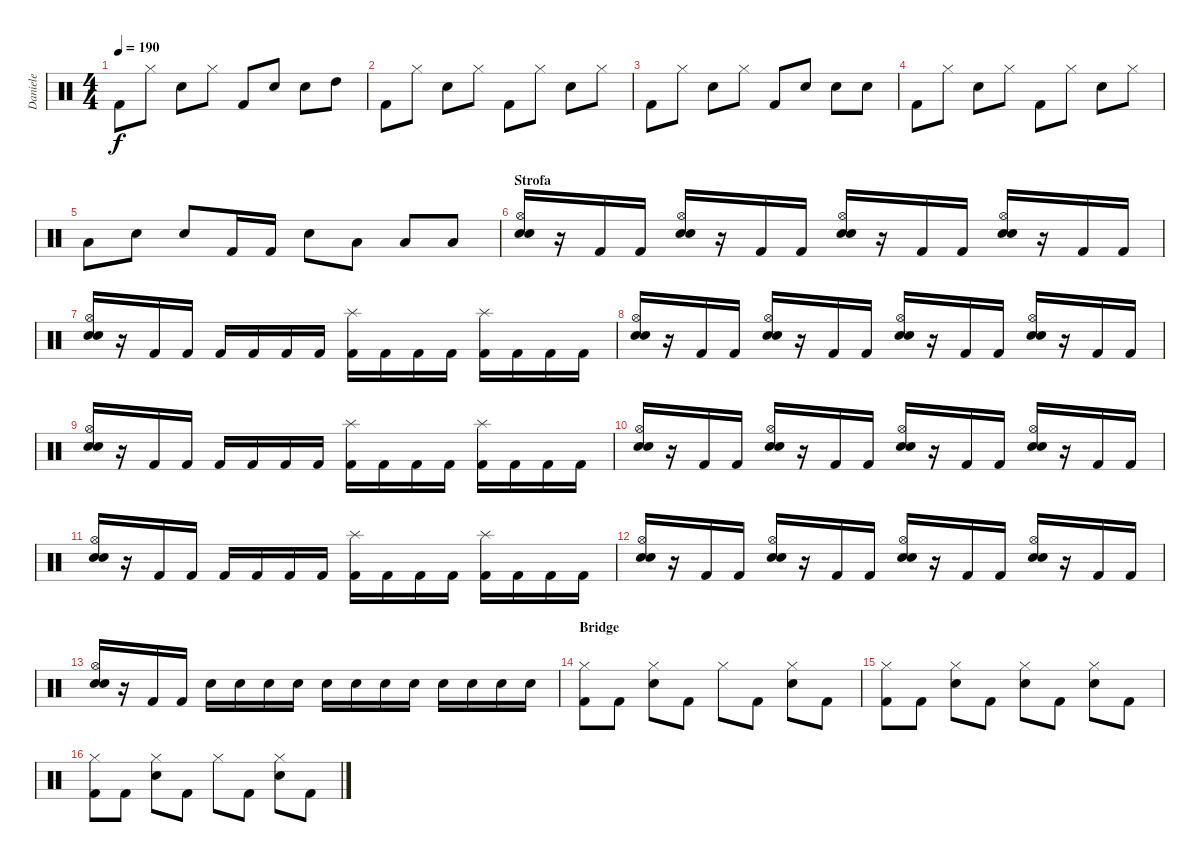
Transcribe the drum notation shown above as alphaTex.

\track ("Daniele" "Daniele") {instrument percussion}
\staff {score}
\articulation defaults
\ts (4 4)
\tempo 190
\clef neutral
\ks c "Kick (hit) 2".8{dy f} "Hi-Hat (closed)".8 "Electric Snare (hit)".8 "Hi-Hat (closed)".8 "Kick (hit) 2".8 "Electric Snare (hit)".8 "Electric Snare (hit)".8 "High Tom (hit)".8
|
"Kick (hit) 2".8 "Hi-Hat (closed)".8 "Electric Snare (hit)".8 "Hi-Hat (closed)".8 "Kick (hit) 2".8 "Hi-Hat (closed)".8 "Electric Snare (hit)".8 "Hi-Hat (closed)".8 |
"Kick (hit) 2".8 "Hi-Hat (closed)".8 "Electric Snare (hit)".8 "Hi-Hat (closed)".8 "Kick (hit) 2".8 "Electric Snare (hit)".8 "Electric Snare (hit)".8 "Electric Snare (hit)".8 |
"Kick (hit) 2".8 "Hi-Hat (closed)".8 "Electric Snare (hit)".8 "Hi-Hat (closed)".8 "Kick (hit) 2".8 "Hi-Hat (closed)".8 "Electric Snare (hit)".8 "Hi-Hat (closed)".8 |
"Low Tom (hit)".8 "Electric Snare (hit)".8 "Electric Snare (hit)".8 "Kick (hit) 2".16 "Kick (hit) 2".16 "Electric Snare (hit)".8 "Low Tom (hit)".8 "Low Tom (hit)".8 "Low Floor Tom (hit)".8 |
\section ("" "Strofa")
("Hi-Hat (open)" "Electric Snare (hit)" "Snare (hit) 2").16 r.16 "Kick (hit) 2".16 "Kick (hit) 2".16 ("Hi-Hat (open)" "Electric Snare (hit)" "Snare (hit) 2").16 r.16 "Kick (hit) 2".16 "Kick (hit) 2".16 ("Hi-Hat (open)" "Electric Snare (hit)" "Snare (hit) 2").16 r.16 "Kick (hit) 2".16 "Kick (hit) 2".16 ("Hi-Hat (open)" "Electric Snare (hit)" "Snare (hit) 2").16 r.16 "Kick (hit) 2".16 "Kick (hit) 2".16 |
("Hi-Hat (open)" "Electric Snare (hit)" "Snare (hit) 2").16 r.16 "Kick (hit) 2".16 "Kick (hit) 2".16 "Kick (hit) 2".16 "Kick (hit) 2".16 "Kick (hit) 2".16 "Kick (hit) 2".16 ("Splash (hit)" "Kick (hit) 2").16 "Kick (hit) 2".16 "Kick (hit) 2".16 "Kick (hit) 2".16 ("Splash (hit)" "Kick (hit) 2").16 "Kick (hit) 2".16 "Kick (hit) 2".16 "Kick (hit) 2".16 |
("Hi-Hat (open)" "Electric Snare (hit)" "Snare (hit) 2").16 r.16 "Kick (hit) 2".16 "Kick (hit) 2".16 ("Hi-Hat (open)" "Electric Snare (hit)" "Snare (hit) 2").16 r.16 "Kick (hit) 2".16 "Kick (hit) 2".16 ("Hi-Hat (open)" "Electric Snare (hit)" "Snare (hit) 2").16 r.16 "Kick (hit) 2".16 "Kick (hit) 2".16 ("Hi-Hat (open)" "Electric Snare (hit)" "Snare (hit) 2").16 r.16 "Kick (hit) 2".16 "Kick (hit) 2".16 |
("Hi-Hat (open)" "Electric Snare (hit)" "Snare (hit) 2").16 r.16 "Kick (hit) 2".16 "Kick (hit) 2".16 "Kick (hit) 2".16 "Kick (hit) 2".16 "Kick (hit) 2".16 "Kick (hit) 2".16 ("Splash (hit)" "Kick (hit) 2").16 "Kick (hit) 2".16 "Kick (hit) 2".16 "Kick (hit) 2".16 ("Splash (hit)" "Kick (hit) 2").16 "Kick (hit) 2".16 "Kick (hit) 2".16 "Kick (hit) 2".16 |
("Hi-Hat (open)" "Electric Snare (hit)" "Snare (hit) 2").16 r.16 "Kick (hit) 2".16 "Kick (hit) 2".16 ("Hi-Hat (open)" "Electric Snare (hit)" "Snare (hit) 2").16 r.16 "Kick (hit) 2".16 "Kick (hit) 2".16 ("Hi-Hat (open)" "Electric Snare (hit)" "Snare (hit) 2").16 r.16 "Kick (hit) 2".16 "Kick (hit) 2".16 ("Hi-Hat (open)" "Electric Snare (hit)" "Snare (hit) 2").16 r.16 "Kick (hit) 2".16 "Kick (hit) 2".16 |
("Hi-Hat (open)" "Electric Snare (hit)" "Snare (hit) 2").16 r.16 "Kick (hit) 2".16 "Kick (hit) 2".16 "Kick (hit) 2".16 "Kick (hit) 2".16 "Kick (hit) 2".16 "Kick (hit) 2".16 ("Splash (hit)" "Kick (hit) 2").16 "Kick (hit) 2".16 "Kick (hit) 2".16 "Kick (hit) 2".16 ("Splash (hit)" "Kick (hit) 2").16 "Kick (hit) 2".16 "Kick (hit) 2".16 "Kick (hit) 2".16 |
("Hi-Hat (open)" "Electric Snare (hit)" "Snare (hit) 2").16 r.16 "Kick (hit) 2".16 "Kick (hit) 2".16 ("Hi-Hat (open)" "Electric Snare (hit)" "Snare (hit) 2").16 r.16 "Kick (hit) 2".16 "Kick (hit) 2".16 ("Hi-Hat (open)" "Electric Snare (hit)" "Snare (hit) 2").16 r.16 "Kick (hit) 2".16 "Kick (hit) 2".16 ("Hi-Hat (open)" "Electric Snare (hit)" "Snare (hit) 2").16 r.16 "Kick (hit) 2".16 "Kick (hit) 2".16 |
("Hi-Hat (open)" "Electric Snare (hit)" "Snare (hit) 2").16 r.16 "Kick (hit) 2".16 "Kick (hit) 2".16 "Electric Snare (hit)".16 "Electric Snare (hit)".16 "Electric Snare (hit)".16 "Electric Snare (hit)".16 "Electric Snare (hit)".16 "Electric Snare (hit)".16 "Electric Snare (hit)".16 "Electric Snare (hit)".16 "Electric Snare (hit)".16 "Electric Snare (hit)".16 "Electric Snare (hit)".16 "Electric Snare (hit)".16 |
\section ("" "Bridge")
("Hi-Hat (closed)" "Kick (hit) 2").8 "Kick (hit) 2".8 ("Hi-Hat (closed)" "Electric Snare (hit)").8 "Kick (hit) 2".8 "Hi-Hat (closed)".8 "Kick (hit) 2".8 ("Hi-Hat (closed)" "Electric Snare (hit)").8 "Kick (hit) 2".8 |
("Hi-Hat (closed)" "Kick (hit) 2").8 "Kick (hit) 2".8 ("Hi-Hat (closed)" "Electric Snare (hit)").8 "Kick (hit) 2".8 ("Hi-Hat (closed)" "Electric Snare (hit)").8 "Kick (hit) 2".8 ("Hi-Hat (closed)" "Electric Snare (hit)").8 "Kick (hit) 2".8 |
("Hi-Hat (closed)" "Kick (hit) 2").8 "Kick (hit) 2".8 ("Hi-Hat (closed)" "Electric Snare (hit)").8 "Kick (hit) 2".8 "Hi-Hat (closed)".8 "Kick (hit) 2".8 ("Hi-Hat (closed)" "Electric Snare (hit)").8 "Kick (hit) 2".8
